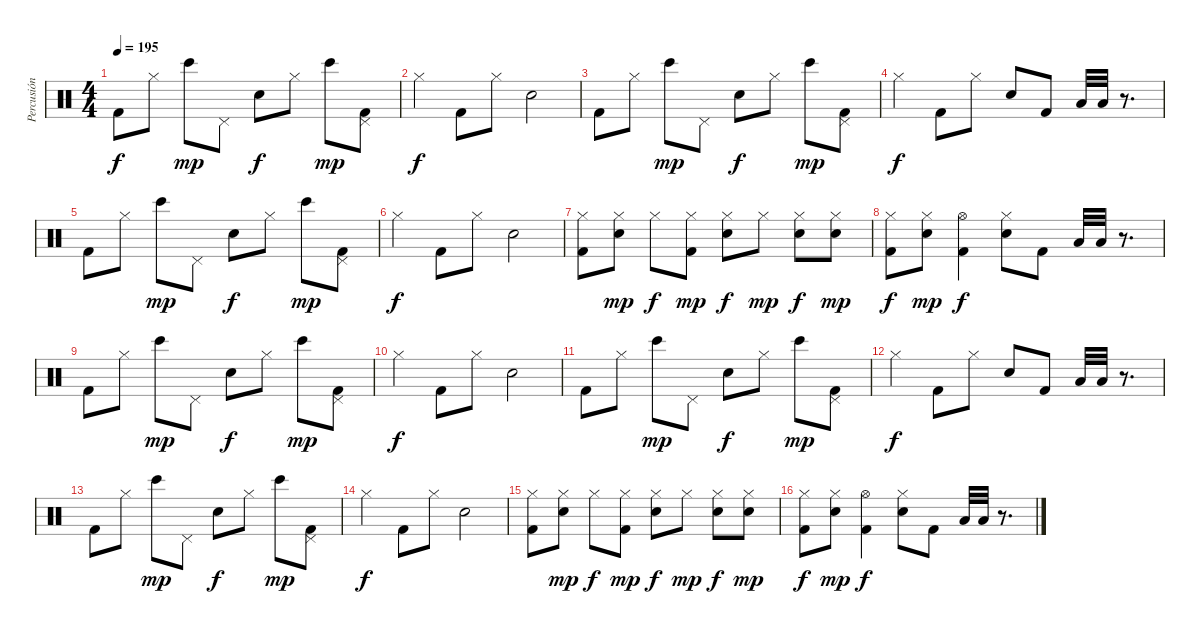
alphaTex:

\track ("Percusión" "Percusión") {instrument percussion}
\staff {score}
\articulation defaults
\ts (4 4)
\tempo 195
\clef neutral
\ks c "Kick (hit) 2".8{dy f} "Hi-Hat (closed)".8 "Bongo High (hit)".8{dy mp} "Pedal Hi-Hat (hit)".8 "Electric Snare (hit)".8{dy f} "Hi-Hat (closed)".8 "Bongo High (hit)".8{dy mp}
("Pedal Hi-Hat (hit)" "Kick (hit) 2").8 |
"Hi-Hat (closed)".4{dy f} "Kick (hit) 2".8 "Hi-Hat (closed)".8 "Electric Snare (hit)".2 |
"Kick (hit) 2".8 "Hi-Hat (closed)".8 "Bongo High (hit)".8{dy mp} "Pedal Hi-Hat (hit)".8 "Electric Snare (hit)".8{dy f} "Hi-Hat (closed)".8 "Bongo High (hit)".8{dy mp} ("Pedal Hi-Hat (hit)" "Kick (hit) 2").8 |
"Hi-Hat (closed)".4{dy f} "Kick (hit) 2".8 "Hi-Hat (closed)".8 "Electric Snare (hit)".8 "Kick (hit) 2".8 "Low Floor Tom (hit)".32 "Low Floor Tom (hit)".32 r.8{d} |
"Kick (hit) 2".8 "Hi-Hat (closed)".8 "Bongo High (hit)".8{dy mp} "Pedal Hi-Hat (hit)".8 "Electric Snare (hit)".8{dy f} "Hi-Hat (closed)".8 "Bongo High (hit)".8{dy mp} ("Pedal Hi-Hat (hit)" "Kick (hit) 2").8 |
"Hi-Hat (closed)".4{dy f} "Kick (hit) 2".8 "Hi-Hat (closed)".8 "Electric Snare (hit)".2 |
("Hi-Hat (closed)" "Kick (hit) 2").8 ("Hi-Hat (closed)" "Electric Snare (hit)").8{dy mp} "Hi-Hat (closed)".8{dy f} ("Hi-Hat (closed)" "Kick (hit) 2").8{dy mp} ("Hi-Hat (closed)" "Electric Snare (hit)").8{dy f} "Hi-Hat (closed)".8{dy mp} ("Hi-Hat (closed)" "Electric Snare (hit)").8{dy f} ("Hi-Hat (closed)" "Electric Snare (hit)").8{dy mp} |
("Hi-Hat (closed)" "Kick (hit) 2").8{dy f} ("Hi-Hat (closed)" "Electric Snare (hit)").8{dy mp} ("Hi-Hat (open)" "Kick (hit) 2").4{dy f} ("Hi-Hat (closed)" "Electric Snare (hit)").8 "Kick (hit) 2".8 "Low Floor Tom (hit)".32 "Low Floor Tom (hit)".32 r.8{d} |
"Kick (hit) 2".8 "Hi-Hat (closed)".8 "Bongo High (hit)".8{dy mp} "Pedal Hi-Hat (hit)".8 "Electric Snare (hit)".8{dy f} "Hi-Hat (closed)".8 "Bongo High (hit)".8{dy mp} ("Pedal Hi-Hat (hit)" "Kick (hit) 2").8 |
"Hi-Hat (closed)".4{dy f} "Kick (hit) 2".8 "Hi-Hat (closed)".8 "Electric Snare (hit)".2 |
"Kick (hit) 2".8 "Hi-Hat (closed)".8 "Bongo High (hit)".8{dy mp} "Pedal Hi-Hat (hit)".8 "Electric Snare (hit)".8{dy f} "Hi-Hat (closed)".8 "Bongo High (hit)".8{dy mp} ("Pedal Hi-Hat (hit)" "Kick (hit) 2").8 |
"Hi-Hat (closed)".4{dy f} "Kick (hit) 2".8 "Hi-Hat (closed)".8 "Electric Snare (hit)".8 "Kick (hit) 2".8 "Low Floor Tom (hit)".32 "Low Floor Tom (hit)".32 r.8{d} |
"Kick (hit) 2".8 "Hi-Hat (closed)".8 "Bongo High (hit)".8{dy mp} "Pedal Hi-Hat (hit)".8 "Electric Snare (hit)".8{dy f} "Hi-Hat (closed)".8 "Bongo High (hit)".8{dy mp} ("Pedal Hi-Hat (hit)" "Kick (hit) 2").8 |
"Hi-Hat (closed)".4{dy f} "Kick (hit) 2".8 "Hi-Hat (closed)".8 "Electric Snare (hit)".2 |
("Hi-Hat (closed)" "Kick (hit) 2").8 ("Hi-Hat (closed)" "Electric Snare (hit)").8{dy mp} "Hi-Hat (closed)".8{dy f} ("Hi-Hat (closed)" "Kick (hit) 2").8{dy mp} ("Hi-Hat (closed)" "Electric Snare (hit)").8{dy f} "Hi-Hat (closed)".8{dy mp} ("Hi-Hat (closed)" "Electric Snare (hit)").8{dy f} ("Hi-Hat (closed)" "Electric Snare (hit)").8{dy mp} |
("Hi-Hat (closed)" "Kick (hit) 2").8{dy f} ("Hi-Hat (closed)" "Electric Snare (hit)").8{dy mp} ("Hi-Hat (open)" "Kick (hit) 2").4{dy f} ("Hi-Hat (closed)" "Electric Snare (hit)").8 "Kick (hit) 2".8 "Low Floor Tom (hit)".32 "Low Floor Tom (hit)".32 r.8{d}
